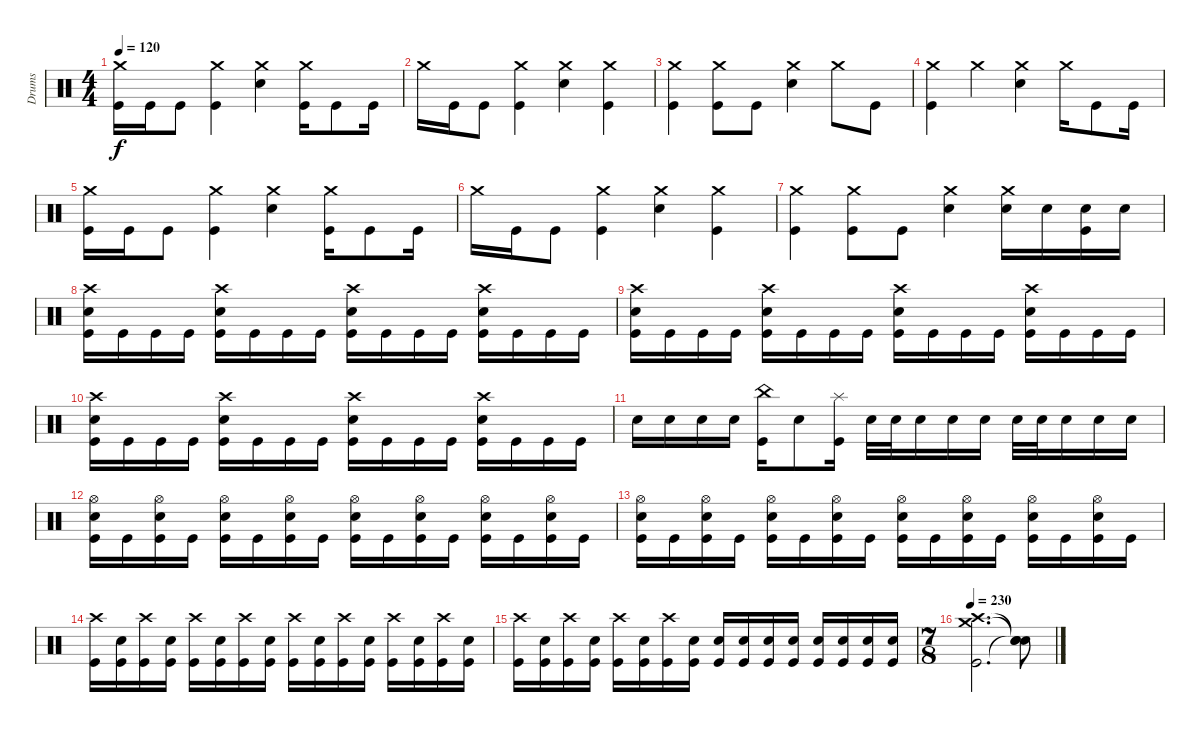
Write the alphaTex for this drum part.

\track ("Drums" "Drums") {instrument percussion}
\staff {score}
\articulation defaults
\ts (4 4)
\tempo 120
\clef neutral
\ks c
("Crash medium (hit)" "Kick (hit)").16{dy f} "Kick (hit)".16 "Kick (hit)".8 ("Crash medium (hit)" "Kick (hit)").4 ("Crash medium (hit)" "Snare (hit) 2").4 ("Crash medium (hit)" "Kick (hit)").16 "Kick (hit)".8 "Kick (hit)".16 |
"Crash medium (hit)".16 "Kick (hit)".16 "Kick (hit)".8 ("Crash medium (hit)" "Kick (hit)").4 ("Crash medium (hit)" "Snare (hit) 2").4 ("Crash medium (hit)" "Kick (hit)").4 |
("Crash medium (hit)" "Kick (hit)").4 ("Crash medium (hit)" "Kick (hit)").8 "Kick (hit)".8 ("Crash medium (hit)" "Snare (hit) 2").4 "Crash medium (hit)".8 "Kick (hit)".8 |
("Crash medium (hit)" "Kick (hit)").4 "Crash medium (hit)".4 ("Crash medium (hit)" "Snare (hit) 2").4 "Crash medium (hit)".16 "Kick (hit)".8 "Kick (hit)".16 |
("Crash medium (hit)" "Kick (hit)").16 "Kick (hit)".16 "Kick (hit)".8 ("Crash medium (hit)" "Kick (hit)").4 ("Crash medium (hit)" "Snare (hit) 2").4 ("Crash medium (hit)" "Kick (hit)").16 "Kick (hit)".8 "Kick (hit)".16 |
"Crash medium (hit)".16 "Kick (hit)".16 "Kick (hit)".8 ("Crash medium (hit)" "Kick (hit)").4 ("Crash medium (hit)" "Snare (hit) 2").4 ("Crash medium (hit)" "Kick (hit)").4 |
("Crash medium (hit)" "Kick (hit)").4 ("Crash medium (hit)" "Kick (hit)").8 "Kick (hit)".8 ("Crash medium (hit)" "Snare (hit) 2").4 ("Crash medium (hit)" "Snare (hit) 2").16 "Snare (hit) 2".16 ("Snare (hit) 2" "Kick (hit)").16 "Snare (hit) 2".16 |
("Crash high (hit)" "Snare (hit) 2" "Kick (hit)").16 "Kick (hit)".16 "Kick (hit)".16 "Kick (hit)".16 ("Crash high (hit)" "Snare (hit) 2" "Kick (hit)").16 "Kick (hit)".16 "Kick (hit)".16 "Kick (hit)".16 ("Crash high (hit)" "Snare (hit) 2" "Kick (hit)").16 "Kick (hit)".16 "Kick (hit)".16 "Kick (hit)".16 ("Crash high (hit)" "Snare (hit) 2" "Kick (hit)").16 "Kick (hit)".16 "Kick (hit)".16 "Kick (hit)".16 |
("Crash high (hit)" "Snare (hit) 2" "Kick (hit)").16 "Kick (hit)".16 "Kick (hit)".16 "Kick (hit)".16 ("Crash high (hit)" "Snare (hit) 2" "Kick (hit)").16 "Kick (hit)".16 "Kick (hit)".16 "Kick (hit)".16 ("Crash high (hit)" "Snare (hit) 2" "Kick (hit)").16 "Kick (hit)".16 "Kick (hit)".16 "Kick (hit)".16 ("Crash high (hit)" "Snare (hit) 2" "Kick (hit)").16 "Kick (hit)".16 "Kick (hit)".16 "Kick (hit)".16 |
("Crash high (hit)" "Snare (hit) 2" "Kick (hit)").16 "Kick (hit)".16 "Kick (hit)".16 "Kick (hit)".16 ("Crash high (hit)" "Snare (hit) 2" "Kick (hit)").16 "Kick (hit)".16 "Kick (hit)".16 "Kick (hit)".16 ("Crash high (hit)" "Snare (hit) 2" "Kick (hit)").16 "Kick (hit)".16 "Kick (hit)".16 "Kick (hit)".16 ("Crash high (hit)" "Snare (hit) 2" "Kick (hit)").16 "Kick (hit)".16 "Kick (hit)".16 "Kick (hit)".16 |
"Snare (hit) 2".16 "Snare (hit) 2".16 "Snare (hit) 2".16 "Snare (hit) 2".16 ("China (hit)" "Kick (hit)").16 "Snare (hit) 2".8 ("Splash (hit)" "Kick (hit)").16 "Snare (hit) 2".32 "Snare (hit) 2".32 "Snare (hit) 2".16 "Snare (hit) 2".16 "Snare (hit) 2".16 "Snare (hit) 2".32 "Snare (hit) 2".32 "Snare (hit) 2".16 "Snare (hit) 2".16 "Snare (hit) 2".16 |
("Hi-Hat (open)" "Snare (hit) 2" "Kick (hit)").16 "Kick (hit)".16 ("Hi-Hat (open)" "Snare (hit) 2" "Kick (hit)").16 "Kick (hit)".16 ("Hi-Hat (open)" "Snare (hit) 2" "Kick (hit)").16 "Kick (hit)".16 ("Hi-Hat (open)" "Snare (hit) 2" "Kick (hit)").16 "Kick (hit)".16 ("Hi-Hat (open)" "Snare (hit) 2" "Kick (hit)").16 "Kick (hit)".16 ("Hi-Hat (open)" "Snare (hit) 2" "Kick (hit)").16 "Kick (hit)".16 ("Hi-Hat (open)" "Snare (hit) 2" "Kick (hit)").16 "Kick (hit)".16 ("Hi-Hat (open)" "Snare (hit) 2" "Kick (hit)").16 "Kick (hit)".16 |
("Hi-Hat (open)" "Snare (hit) 2" "Kick (hit)").16 "Kick (hit)".16 ("Hi-Hat (open)" "Snare (hit) 2" "Kick (hit)").16 "Kick (hit)".16 ("Hi-Hat (open)" "Snare (hit) 2" "Kick (hit)").16 "Kick (hit)".16 ("Hi-Hat (open)" "Snare (hit) 2" "Kick (hit)").16 "Kick (hit)".16 ("Hi-Hat (open)" "Snare (hit) 2" "Kick (hit)").16 "Kick (hit)".16 ("Hi-Hat (open)" "Snare (hit) 2" "Kick (hit)").16 "Kick (hit)".16 ("Hi-Hat (open)" "Snare (hit) 2" "Kick (hit)").16 "Kick (hit)".16 ("Hi-Hat (open)" "Snare (hit) 2" "Kick (hit)").16 "Kick (hit)".16 |
("Crash high (hit)" "Kick (hit)").16 ("Snare (hit) 2" "Kick (hit)").16 ("Crash high (hit)" "Kick (hit)").16 ("Snare (hit) 2" "Kick (hit)").16 ("Crash high (hit)" "Kick (hit)").16 ("Snare (hit) 2" "Kick (hit)").16 ("Crash high (hit)" "Kick (hit)").16 ("Snare (hit) 2" "Kick (hit)").16 ("Crash high (hit)" "Kick (hit)").16 ("Snare (hit) 2" "Kick (hit)").16 ("Crash high (hit)" "Kick (hit)").16 ("Snare (hit) 2" "Kick (hit)").16 ("Crash high (hit)" "Kick (hit)").16 ("Snare (hit) 2" "Kick (hit)").16 ("Crash high (hit)" "Kick (hit)").16 ("Snare (hit) 2" "Kick (hit)").16 |
("Crash high (hit)" "Kick (hit)").16 ("Snare (hit) 2" "Kick (hit)").16 ("Crash high (hit)" "Kick (hit)").16 ("Snare (hit) 2" "Kick (hit)").16 ("Crash high (hit)" "Kick (hit)").16 ("Snare (hit) 2" "Kick (hit)").16 ("Crash high (hit)" "Kick (hit)").16 ("Snare (hit) 2" "Kick (hit)").16 ("Snare (hit) 2" "Kick (hit)").16 ("Snare (hit) 2" "Kick (hit)").16 ("Snare (hit) 2" "Kick (hit)").16 ("Snare (hit) 2" "Kick (hit)").16 ("Snare (hit) 2" "Kick (hit)").16 ("Snare (hit) 2" "Kick (hit)").16 ("Snare (hit) 2" "Kick (hit)").16 ("Snare (hit) 2" "Kick (hit)").16 |
\ts (7 8)
\tempo 230
("Crash high (hit)" "Crash medium (hit)" "Kick (hit)").2{d} ("Snare (hit)"{t} "Snare (hit)"{t} "Snare (hit)"{t}).8
